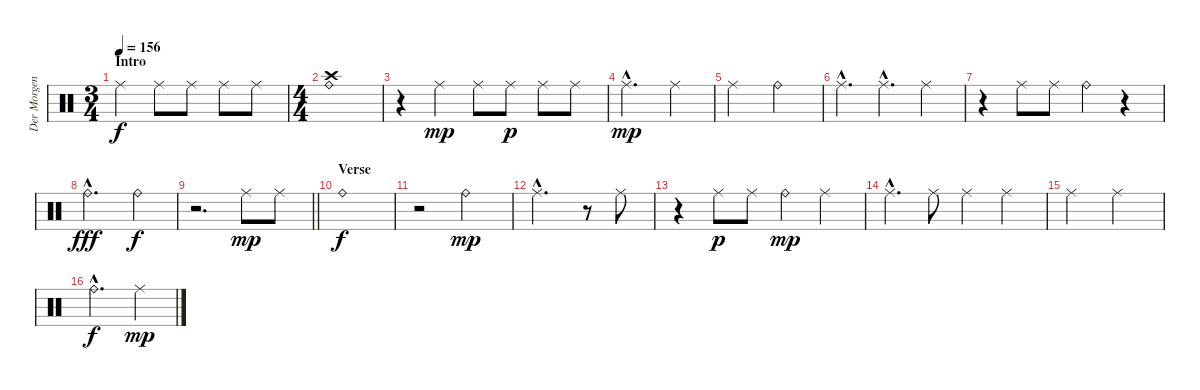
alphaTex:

\track ("Der Morgenstern" "Der Morgen") {instrument percussion}
\staff {score}
\articulation defaults
\ts (3 4)
\section ("" "Intro")
\tempo 156
\clef neutral
\ks c "Ride (middle)".4{dy f} "Ride (middle)".8 "Ride (middle)".8 "Ride (middle)".8 "Ride (middle)".8
|
\ts (4 4)
("Crash high (hit)" "Ride (bell)").1 |
r.4 "Ride (middle)".4{dy mp} "Ride (middle)".8 "Ride (middle)".8{dy p} "Ride (middle)".8 "Ride (middle)".8 |
"Ride (middle)"{hac}.2{d dy mp} "Ride (middle)".4 |
"Ride (middle)".2 "Ride (bell)".2 |
"Ride (middle)"{hac}.4{d} "Ride (middle)"{hac}.4{d} "Ride (middle)".4 |
r.4 "Ride (middle)".8 "Ride (middle)".8 "Ride (bell)".4 r.4 |
"Ride (bell)"{hac}.2{d dy fff} "Ride (bell)".4{dy f} |
\barLineRight lightlight
r.2{d} "Ride (middle)".8{dy mp} "Ride (middle)".8 |
\section ("" "Verse")
"Ride (bell)".1{dy f} |
r.2 "Ride (bell)".2{dy mp} |
"Ride (middle)"{hac}.2{d} r.8 "Ride (middle)".8 |
r.4 "Ride (middle)".8{dy p} "Ride (middle)".8 "Ride (bell)".4{dy mp} "Ride (middle)".4 |
"Ride (middle)"{hac}.4{d} "Ride (middle)".8 "Ride (middle)".4 "Ride (middle)".4 |
"Ride (middle)".2 "Ride (middle)".2 |
"Ride (bell)"{hac}.2{d dy f} "Ride (middle)".4{dy mp}
